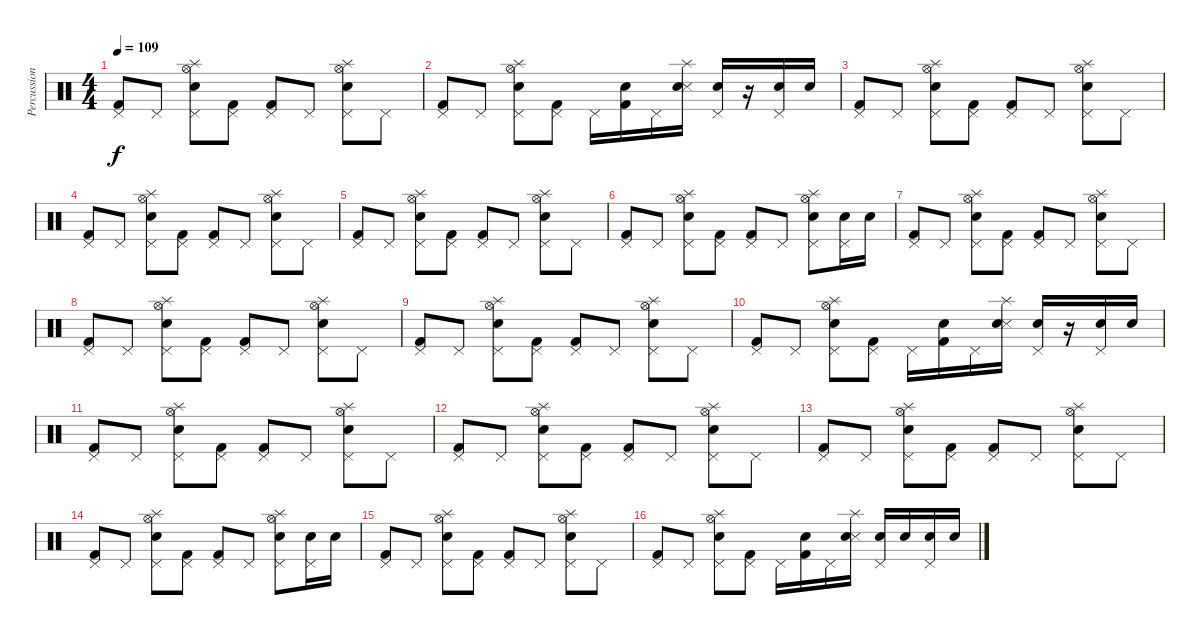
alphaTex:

\track ("Percussion" "Percussion") {instrument percussion}
\staff {score}
\articulation defaults
\ts (4 4)
\tempo 109
\clef neutral
\ks c
("Pedal Hi-Hat (hit)" "Kick (hit) 2").8{dy f} "Pedal Hi-Hat (hit)".8 ("Pedal Hi-Hat (hit)" "Splash (hit)" "Electric Snare (hit)" "Hi-Hat (open)").8 ("Pedal Hi-Hat (hit)" "Kick (hit) 2").8 ("Pedal Hi-Hat (hit)" "Kick (hit) 2").8 "Pedal Hi-Hat (hit)".8 ("Pedal Hi-Hat (hit)" "Splash (hit)" "Electric Snare (hit)" "Hi-Hat (open)").8 "Pedal Hi-Hat (hit)".8 |
("Pedal Hi-Hat (hit)" "Kick (hit) 2").8 "Pedal Hi-Hat (hit)".8 ("Pedal Hi-Hat (hit)" "Splash (hit)" "Electric Snare (hit)" "Hi-Hat (open)").8 ("Pedal Hi-Hat (hit)" "Kick (hit) 2").8 "Pedal Hi-Hat (hit)".16 ("Electric Snare (hit)" "Kick (hit) 2").16 "Pedal Hi-Hat (hit)".16 ("Splash (hit)" "Snare (side stick) 3" "Electric Snare (hit)").16 ("Pedal Hi-Hat (hit)" "Electric Snare (hit)").16 r.16 ("Pedal Hi-Hat (hit)" "Electric Snare (hit)").16 "Electric Snare (hit)".16 |
("Pedal Hi-Hat (hit)" "Kick (hit) 2").8 "Pedal Hi-Hat (hit)".8 ("Pedal Hi-Hat (hit)" "Splash (hit)" "Electric Snare (hit)" "Hi-Hat (open)").8 ("Pedal Hi-Hat (hit)" "Kick (hit) 2").8 ("Pedal Hi-Hat (hit)" "Kick (hit) 2").8 "Pedal Hi-Hat (hit)".8 ("Pedal Hi-Hat (hit)" "Splash (hit)" "Electric Snare (hit)" "Hi-Hat (open)").8 "Pedal Hi-Hat (hit)".8 |
("Pedal Hi-Hat (hit)" "Kick (hit) 2").8 "Pedal Hi-Hat (hit)".8 ("Pedal Hi-Hat (hit)" "Splash (hit)" "Electric Snare (hit)" "Hi-Hat (open)").8 ("Pedal Hi-Hat (hit)" "Kick (hit) 2").8 ("Pedal Hi-Hat (hit)" "Kick (hit) 2").8 "Pedal Hi-Hat (hit)".8 ("Pedal Hi-Hat (hit)" "Splash (hit)" "Electric Snare (hit)" "Hi-Hat (open)").8 "Pedal Hi-Hat (hit)".8 |
("Pedal Hi-Hat (hit)" "Kick (hit) 2").8 "Pedal Hi-Hat (hit)".8 ("Pedal Hi-Hat (hit)" "Splash (hit)" "Electric Snare (hit)" "Hi-Hat (open)").8 ("Pedal Hi-Hat (hit)" "Kick (hit) 2").8 ("Pedal Hi-Hat (hit)" "Kick (hit) 2").8 "Pedal Hi-Hat (hit)".8 ("Pedal Hi-Hat (hit)" "Splash (hit)" "Electric Snare (hit)" "Hi-Hat (open)").8 "Pedal Hi-Hat (hit)".8 |
("Pedal Hi-Hat (hit)" "Kick (hit) 2").8 "Pedal Hi-Hat (hit)".8 ("Pedal Hi-Hat (hit)" "Splash (hit)" "Electric Snare (hit)" "Hi-Hat (open)").8 ("Pedal Hi-Hat (hit)" "Kick (hit) 2").8 ("Pedal Hi-Hat (hit)" "Kick (hit) 2").8 "Pedal Hi-Hat (hit)".8 ("Pedal Hi-Hat (hit)" "Splash (hit)" "Electric Snare (hit)" "Hi-Hat (open)").8 ("Pedal Hi-Hat (hit)" "Electric Snare (hit)").16 "Electric Snare (hit)".16 |
("Pedal Hi-Hat (hit)" "Kick (hit) 2").8 "Pedal Hi-Hat (hit)".8 ("Pedal Hi-Hat (hit)" "Splash (hit)" "Electric Snare (hit)" "Hi-Hat (open)").8 ("Pedal Hi-Hat (hit)" "Kick (hit) 2").8 ("Pedal Hi-Hat (hit)" "Kick (hit) 2").8 "Pedal Hi-Hat (hit)".8 ("Pedal Hi-Hat (hit)" "Splash (hit)" "Electric Snare (hit)" "Hi-Hat (open)").8 "Pedal Hi-Hat (hit)".8 |
("Pedal Hi-Hat (hit)" "Kick (hit) 2").8 "Pedal Hi-Hat (hit)".8 ("Pedal Hi-Hat (hit)" "Splash (hit)" "Electric Snare (hit)" "Hi-Hat (open)").8 ("Pedal Hi-Hat (hit)" "Kick (hit) 2").8 ("Pedal Hi-Hat (hit)" "Kick (hit) 2").8 "Pedal Hi-Hat (hit)".8 ("Pedal Hi-Hat (hit)" "Splash (hit)" "Electric Snare (hit)" "Hi-Hat (open)").8 "Pedal Hi-Hat (hit)".8 |
("Pedal Hi-Hat (hit)" "Kick (hit) 2").8 "Pedal Hi-Hat (hit)".8 ("Pedal Hi-Hat (hit)" "Splash (hit)" "Electric Snare (hit)" "Hi-Hat (open)").8 ("Pedal Hi-Hat (hit)" "Kick (hit) 2").8 ("Pedal Hi-Hat (hit)" "Kick (hit) 2").8 "Pedal Hi-Hat (hit)".8 ("Pedal Hi-Hat (hit)" "Splash (hit)" "Electric Snare (hit)" "Hi-Hat (open)").8 "Pedal Hi-Hat (hit)".8 |
("Pedal Hi-Hat (hit)" "Kick (hit) 2").8 "Pedal Hi-Hat (hit)".8 ("Pedal Hi-Hat (hit)" "Splash (hit)" "Electric Snare (hit)" "Hi-Hat (open)").8 ("Pedal Hi-Hat (hit)" "Kick (hit) 2").8 "Pedal Hi-Hat (hit)".16 ("Electric Snare (hit)" "Kick (hit) 2").16 "Pedal Hi-Hat (hit)".16 ("Splash (hit)" "Snare (side stick) 3" "Electric Snare (hit)").16 ("Pedal Hi-Hat (hit)" "Electric Snare (hit)").16 r.16 ("Pedal Hi-Hat (hit)" "Electric Snare (hit)").16 "Electric Snare (hit)".16 |
("Pedal Hi-Hat (hit)" "Kick (hit) 2").8 "Pedal Hi-Hat (hit)".8 ("Pedal Hi-Hat (hit)" "Splash (hit)" "Electric Snare (hit)" "Hi-Hat (open)").8 ("Pedal Hi-Hat (hit)" "Kick (hit) 2").8 ("Pedal Hi-Hat (hit)" "Kick (hit) 2").8 "Pedal Hi-Hat (hit)".8 ("Pedal Hi-Hat (hit)" "Splash (hit)" "Electric Snare (hit)" "Hi-Hat (open)").8 "Pedal Hi-Hat (hit)".8 |
("Pedal Hi-Hat (hit)" "Kick (hit) 2").8 "Pedal Hi-Hat (hit)".8 ("Pedal Hi-Hat (hit)" "Splash (hit)" "Electric Snare (hit)" "Hi-Hat (open)").8 ("Pedal Hi-Hat (hit)" "Kick (hit) 2").8 ("Pedal Hi-Hat (hit)" "Kick (hit) 2").8 "Pedal Hi-Hat (hit)".8 ("Pedal Hi-Hat (hit)" "Splash (hit)" "Electric Snare (hit)" "Hi-Hat (open)").8 "Pedal Hi-Hat (hit)".8 |
("Pedal Hi-Hat (hit)" "Kick (hit) 2").8 "Pedal Hi-Hat (hit)".8 ("Pedal Hi-Hat (hit)" "Splash (hit)" "Electric Snare (hit)" "Hi-Hat (open)").8 ("Pedal Hi-Hat (hit)" "Kick (hit) 2").8 ("Pedal Hi-Hat (hit)" "Kick (hit) 2").8 "Pedal Hi-Hat (hit)".8 ("Pedal Hi-Hat (hit)" "Splash (hit)" "Electric Snare (hit)" "Hi-Hat (open)").8 "Pedal Hi-Hat (hit)".8 |
("Pedal Hi-Hat (hit)" "Kick (hit) 2").8 "Pedal Hi-Hat (hit)".8 ("Pedal Hi-Hat (hit)" "Splash (hit)" "Electric Snare (hit)" "Hi-Hat (open)").8 ("Pedal Hi-Hat (hit)" "Kick (hit) 2").8 ("Pedal Hi-Hat (hit)" "Kick (hit) 2").8 "Pedal Hi-Hat (hit)".8 ("Pedal Hi-Hat (hit)" "Splash (hit)" "Electric Snare (hit)" "Hi-Hat (open)").8 ("Pedal Hi-Hat (hit)" "Electric Snare (hit)").16 "Electric Snare (hit)".16 |
("Pedal Hi-Hat (hit)" "Kick (hit) 2").8 "Pedal Hi-Hat (hit)".8 ("Pedal Hi-Hat (hit)" "Splash (hit)" "Electric Snare (hit)" "Hi-Hat (open)").8 ("Pedal Hi-Hat (hit)" "Kick (hit) 2").8 ("Pedal Hi-Hat (hit)" "Kick (hit) 2").8 "Pedal Hi-Hat (hit)".8 ("Pedal Hi-Hat (hit)" "Splash (hit)" "Electric Snare (hit)" "Hi-Hat (open)").8 "Pedal Hi-Hat (hit)".8 |
("Pedal Hi-Hat (hit)" "Kick (hit) 2").8 "Pedal Hi-Hat (hit)".8 ("Pedal Hi-Hat (hit)" "Splash (hit)" "Electric Snare (hit)" "Hi-Hat (open)").8 ("Pedal Hi-Hat (hit)" "Kick (hit) 2").8 "Pedal Hi-Hat (hit)".16 ("Electric Snare (hit)" "Kick (hit) 2").16 "Pedal Hi-Hat (hit)".16 ("Splash (hit)" "Snare (side stick) 3" "Electric Snare (hit)").16 ("Pedal Hi-Hat (hit)" "Electric Snare (hit)").16 "Electric Snare (hit)".16 ("Pedal Hi-Hat (hit)" "Electric Snare (hit)").16 "Electric Snare (hit)".16
